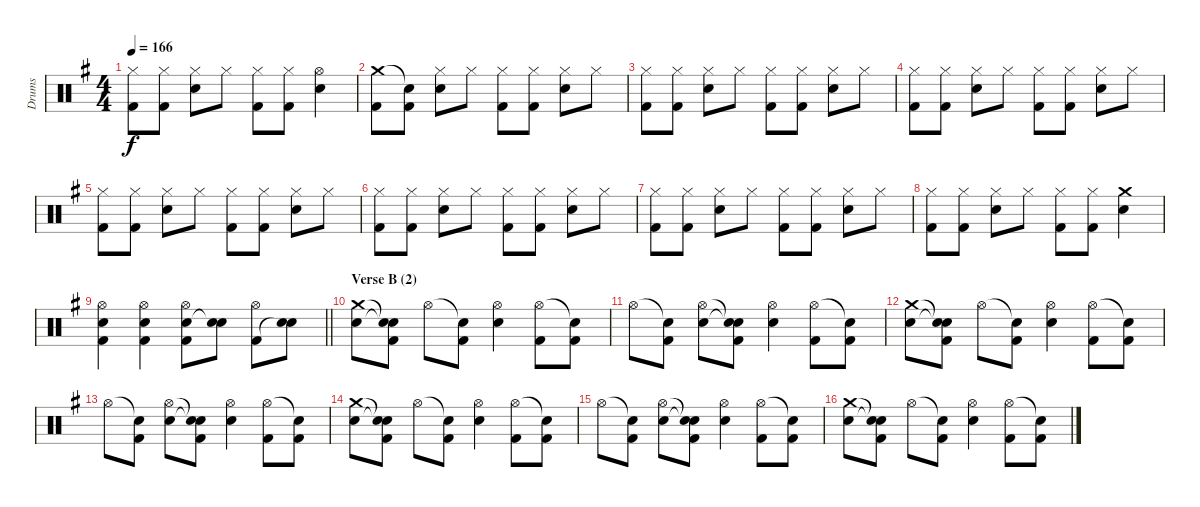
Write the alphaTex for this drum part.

\track ("Drums" "Drums") {instrument percussion}
\staff {score}
\articulation defaults
\ts (4 4)
\tempo 166
\clef neutral
\ks g
("Hi-Hat (closed)" "Kick (hit) 2").8{dy f} ("Hi-Hat (closed)" "Kick (hit) 2").8 ("Hi-Hat (closed)" "Electric Snare (hit)").8 "Hi-Hat (closed)".8 ("Hi-Hat (closed)" "Kick (hit) 2").8 ("Hi-Hat (closed)" "Kick (hit) 2").8 ("Hi-Hat (open)" "Electric Snare (hit)").4 |
("Crash medium (hit)" "Kick (hit) 2").8 ("Snare (hit)"{t} "Kick (hit) 2").8 ("Hi-Hat (closed)" "Electric Snare (hit)").8 "Hi-Hat (closed)".8 ("Hi-Hat (closed)" "Kick (hit) 2").8 ("Hi-Hat (closed)" "Kick (hit) 2").8 ("Hi-Hat (closed)" "Electric Snare (hit)").8 "Hi-Hat (closed)".8 |
("Hi-Hat (closed)" "Kick (hit) 2").8 ("Hi-Hat (closed)" "Kick (hit) 2").8 ("Hi-Hat (closed)" "Electric Snare (hit)").8 "Hi-Hat (closed)".8 ("Hi-Hat (closed)" "Kick (hit) 2").8 ("Hi-Hat (closed)" "Kick (hit) 2").8 ("Hi-Hat (closed)" "Electric Snare (hit)").8 "Hi-Hat (closed)".8 |
("Hi-Hat (closed)" "Kick (hit) 2").8 ("Hi-Hat (closed)" "Kick (hit) 2").8 ("Hi-Hat (closed)" "Electric Snare (hit)").8 "Hi-Hat (closed)".8 ("Hi-Hat (closed)" "Kick (hit) 2").8 ("Hi-Hat (closed)" "Kick (hit) 2").8 ("Hi-Hat (closed)" "Electric Snare (hit)").8 "Hi-Hat (closed)".8 |
("Hi-Hat (closed)" "Kick (hit) 2").8 ("Hi-Hat (closed)" "Kick (hit) 2").8 ("Hi-Hat (closed)" "Electric Snare (hit)").8 "Hi-Hat (closed)".8 ("Hi-Hat (closed)" "Kick (hit) 2").8 ("Hi-Hat (closed)" "Kick (hit) 2").8 ("Hi-Hat (closed)" "Electric Snare (hit)").8 "Hi-Hat (closed)".8 |
("Hi-Hat (closed)" "Kick (hit) 2").8 ("Hi-Hat (closed)" "Kick (hit) 2").8 ("Hi-Hat (closed)" "Electric Snare (hit)").8 "Hi-Hat (closed)".8 ("Hi-Hat (closed)" "Kick (hit) 2").8 ("Hi-Hat (closed)" "Kick (hit) 2").8 ("Hi-Hat (closed)" "Electric Snare (hit)").8 "Hi-Hat (closed)".8 |
("Hi-Hat (closed)" "Kick (hit) 2").8 ("Hi-Hat (closed)" "Kick (hit) 2").8 ("Hi-Hat (closed)" "Electric Snare (hit)").8 "Hi-Hat (closed)".8 ("Hi-Hat (closed)" "Kick (hit) 2").8 ("Hi-Hat (closed)" "Kick (hit) 2").8 ("Hi-Hat (closed)" "Electric Snare (hit)").8 "Hi-Hat (closed)".8 |
("Hi-Hat (closed)" "Kick (hit) 2").8 ("Hi-Hat (closed)" "Kick (hit) 2").8 ("Hi-Hat (closed)" "Electric Snare (hit)").8 "Hi-Hat (closed)".8 ("Hi-Hat (closed)" "Kick (hit) 2").8 ("Hi-Hat (closed)" "Kick (hit) 2").8 ("Crash medium (hit)" "Electric Snare (hit)").4 |
\barLineRight lightlight
("Hi-Hat (open)" "Electric Snare (hit)" "Kick (hit) 2").4 ("Hi-Hat (open)" "Electric Snare (hit)" "Kick (hit) 2").4 ("Hi-Hat (open)" "Electric Snare (hit)" "Kick (hit) 2").8 ("Electric Snare (hit)" "Snare (hit)"{t}).8 ("Hi-Hat (open)" "Kick (hit) 2").8 ("Electric Snare (hit)" "Snare (hit)"{t}).8 |
\section ("" "Verse B (2)")
("Crash medium (hit)" "Electric Snare (hit)").8 ("Snare (hit)"{t} "Snare (hit)"{t} "Kick (hit) 2").8 "Hi-Hat (open)".8 ("Snare (hit)"{t} "Kick (hit) 2").8 ("Hi-Hat (open)" "Electric Snare (hit)").4 ("Hi-Hat (open)" "Kick (hit) 2").8 ("Snare (hit)"{t} "Kick (hit) 2").8 |
"Hi-Hat (open)".8 ("Snare (hit)"{t} "Kick (hit) 2").8 ("Hi-Hat (open)" "Electric Snare (hit)").8 ("Snare (hit)"{t} "Snare (hit)"{t} "Kick (hit) 2").8 ("Hi-Hat (open)" "Electric Snare (hit)").4 ("Hi-Hat (open)" "Kick (hit) 2").8 ("Snare (hit)"{t} "Kick (hit) 2").8 |
("Crash medium (hit)" "Electric Snare (hit)").8 ("Snare (hit)"{t} "Snare (hit)"{t} "Kick (hit) 2").8 "Hi-Hat (open)".8 ("Snare (hit)"{t} "Kick (hit) 2").8 ("Hi-Hat (open)" "Electric Snare (hit)").4 ("Hi-Hat (open)" "Kick (hit) 2").8 ("Snare (hit)"{t} "Kick (hit) 2").8 |
"Hi-Hat (open)".8 ("Snare (hit)"{t} "Kick (hit) 2").8 ("Hi-Hat (open)" "Electric Snare (hit)").8 ("Snare (hit)"{t} "Snare (hit)"{t} "Kick (hit) 2").8 ("Hi-Hat (open)" "Electric Snare (hit)").4 ("Hi-Hat (open)" "Kick (hit) 2").8 ("Snare (hit)"{t} "Kick (hit) 2").8 |
("Crash medium (hit)" "Electric Snare (hit)").8 ("Snare (hit)"{t} "Snare (hit)"{t} "Kick (hit) 2").8 "Hi-Hat (open)".8 ("Snare (hit)"{t} "Kick (hit) 2").8 ("Hi-Hat (open)" "Electric Snare (hit)").4 ("Hi-Hat (open)" "Kick (hit) 2").8 ("Snare (hit)"{t} "Kick (hit) 2").8 |
"Hi-Hat (open)".8 ("Snare (hit)"{t} "Kick (hit) 2").8 ("Hi-Hat (open)" "Electric Snare (hit)").8 ("Snare (hit)"{t} "Snare (hit)"{t} "Kick (hit) 2").8 ("Hi-Hat (open)" "Electric Snare (hit)").4 ("Hi-Hat (open)" "Kick (hit) 2").8 ("Snare (hit)"{t} "Kick (hit) 2").8 |
("Crash medium (hit)" "Electric Snare (hit)").8 ("Snare (hit)"{t} "Snare (hit)"{t} "Kick (hit) 2").8 "Hi-Hat (open)".8 ("Snare (hit)"{t} "Kick (hit) 2").8 ("Hi-Hat (open)" "Electric Snare (hit)").4 ("Hi-Hat (open)" "Kick (hit) 2").8 ("Snare (hit)"{t} "Kick (hit) 2").8
